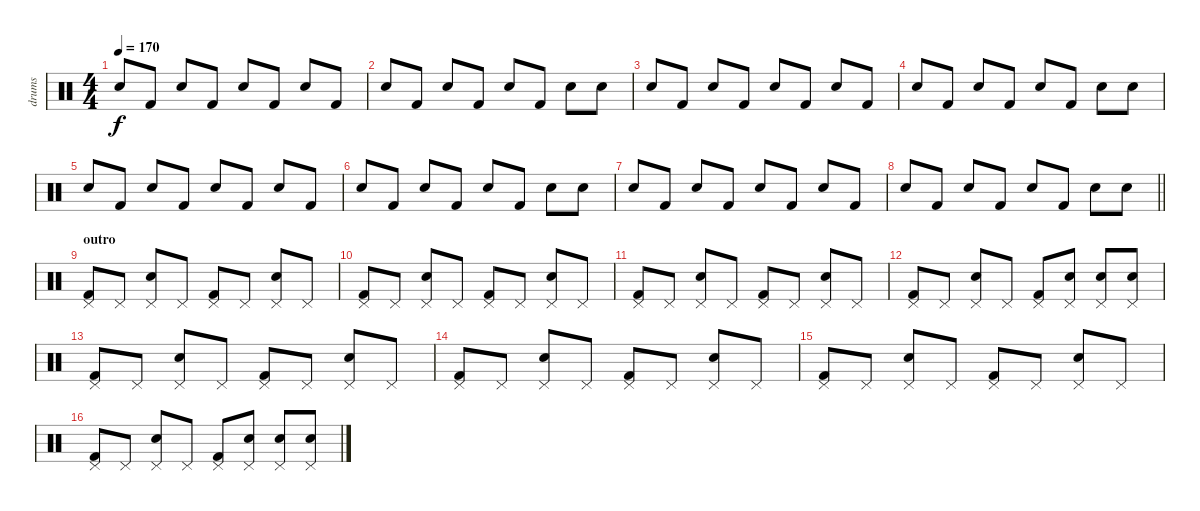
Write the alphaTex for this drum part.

\track ("drums" "drums") {instrument percussion}
\staff {score}
\articulation defaults
\ts (4 4)
\tempo 170
\clef neutral
\ks c "Electric Snare (hit)".8{dy f} "Kick (hit) 2".8 "Electric Snare (hit)".8 "Kick (hit) 2".8 "Electric Snare (hit)".8 "Kick (hit) 2".8 "Electric Snare (hit)".8 "Kick (hit) 2".8
|
"Electric Snare (hit)".8 "Kick (hit) 2".8 "Electric Snare (hit)".8 "Kick (hit) 2".8 "Electric Snare (hit)".8 "Kick (hit) 2".8 "Electric Snare (hit)".8 "Electric Snare (hit)".8 |
"Electric Snare (hit)".8 "Kick (hit) 2".8 "Electric Snare (hit)".8 "Kick (hit) 2".8 "Electric Snare (hit)".8 "Kick (hit) 2".8 "Electric Snare (hit)".8 "Kick (hit) 2".8 |
"Electric Snare (hit)".8 "Kick (hit) 2".8 "Electric Snare (hit)".8 "Kick (hit) 2".8 "Electric Snare (hit)".8 "Kick (hit) 2".8 "Electric Snare (hit)".8 "Electric Snare (hit)".8 |
"Electric Snare (hit)".8 "Kick (hit) 2".8 "Electric Snare (hit)".8 "Kick (hit) 2".8 "Electric Snare (hit)".8 "Kick (hit) 2".8 "Electric Snare (hit)".8 "Kick (hit) 2".8 |
"Electric Snare (hit)".8 "Kick (hit) 2".8 "Electric Snare (hit)".8 "Kick (hit) 2".8 "Electric Snare (hit)".8 "Kick (hit) 2".8 "Electric Snare (hit)".8 "Electric Snare (hit)".8 |
"Electric Snare (hit)".8 "Kick (hit) 2".8 "Electric Snare (hit)".8 "Kick (hit) 2".8 "Electric Snare (hit)".8 "Kick (hit) 2".8 "Electric Snare (hit)".8 "Kick (hit) 2".8 |
\barLineRight lightlight "Electric Snare (hit)".8 "Kick (hit) 2".8 "Electric Snare (hit)".8 "Kick (hit) 2".8 "Electric Snare (hit)".8 "Kick (hit) 2".8 "Electric Snare (hit)".8 "Electric Snare (hit)".8
|
\section ("" "outro")
("Kick (hit) 2" "Pedal Hi-Hat (hit)").8 "Pedal Hi-Hat (hit)".8 ("Electric Snare (hit)" "Pedal Hi-Hat (hit)").8 "Pedal Hi-Hat (hit)".8 ("Kick (hit) 2" "Pedal Hi-Hat (hit)").8 "Pedal Hi-Hat (hit)".8 ("Electric Snare (hit)" "Pedal Hi-Hat (hit)").8 "Pedal Hi-Hat (hit)".8 |
("Kick (hit) 2" "Pedal Hi-Hat (hit)").8 "Pedal Hi-Hat (hit)".8 ("Electric Snare (hit)" "Pedal Hi-Hat (hit)").8 "Pedal Hi-Hat (hit)".8 ("Kick (hit) 2" "Pedal Hi-Hat (hit)").8 "Pedal Hi-Hat (hit)".8 ("Electric Snare (hit)" "Pedal Hi-Hat (hit)").8 "Pedal Hi-Hat (hit)".8 |
("Kick (hit) 2" "Pedal Hi-Hat (hit)").8 "Pedal Hi-Hat (hit)".8 ("Electric Snare (hit)" "Pedal Hi-Hat (hit)").8 "Pedal Hi-Hat (hit)".8 ("Kick (hit) 2" "Pedal Hi-Hat (hit)").8 "Pedal Hi-Hat (hit)".8 ("Electric Snare (hit)" "Pedal Hi-Hat (hit)").8 "Pedal Hi-Hat (hit)".8 |
("Kick (hit) 2" "Pedal Hi-Hat (hit)").8 "Pedal Hi-Hat (hit)".8 ("Electric Snare (hit)" "Pedal Hi-Hat (hit)").8 "Pedal Hi-Hat (hit)".8 ("Kick (hit) 2" "Pedal Hi-Hat (hit)").8 ("Electric Snare (hit)" "Pedal Hi-Hat (hit)").8 ("Electric Snare (hit)" "Pedal Hi-Hat (hit)").8 ("Electric Snare (hit)" "Pedal Hi-Hat (hit)").8 |
("Kick (hit) 2" "Pedal Hi-Hat (hit)").8 "Pedal Hi-Hat (hit)".8 ("Electric Snare (hit)" "Pedal Hi-Hat (hit)").8 "Pedal Hi-Hat (hit)".8 ("Kick (hit) 2" "Pedal Hi-Hat (hit)").8 "Pedal Hi-Hat (hit)".8 ("Electric Snare (hit)" "Pedal Hi-Hat (hit)").8 "Pedal Hi-Hat (hit)".8 |
("Kick (hit) 2" "Pedal Hi-Hat (hit)").8 "Pedal Hi-Hat (hit)".8 ("Electric Snare (hit)" "Pedal Hi-Hat (hit)").8 "Pedal Hi-Hat (hit)".8 ("Kick (hit) 2" "Pedal Hi-Hat (hit)").8 "Pedal Hi-Hat (hit)".8 ("Electric Snare (hit)" "Pedal Hi-Hat (hit)").8 "Pedal Hi-Hat (hit)".8 |
("Kick (hit) 2" "Pedal Hi-Hat (hit)").8 "Pedal Hi-Hat (hit)".8 ("Electric Snare (hit)" "Pedal Hi-Hat (hit)").8 "Pedal Hi-Hat (hit)".8 ("Kick (hit) 2" "Pedal Hi-Hat (hit)").8 "Pedal Hi-Hat (hit)".8 ("Electric Snare (hit)" "Pedal Hi-Hat (hit)").8 "Pedal Hi-Hat (hit)".8 |
("Kick (hit) 2" "Pedal Hi-Hat (hit)").8 "Pedal Hi-Hat (hit)".8 ("Electric Snare (hit)" "Pedal Hi-Hat (hit)").8 "Pedal Hi-Hat (hit)".8 ("Kick (hit) 2" "Pedal Hi-Hat (hit)").8 ("Electric Snare (hit)" "Pedal Hi-Hat (hit)").8 ("Electric Snare (hit)" "Pedal Hi-Hat (hit)").8 ("Electric Snare (hit)" "Pedal Hi-Hat (hit)").8
